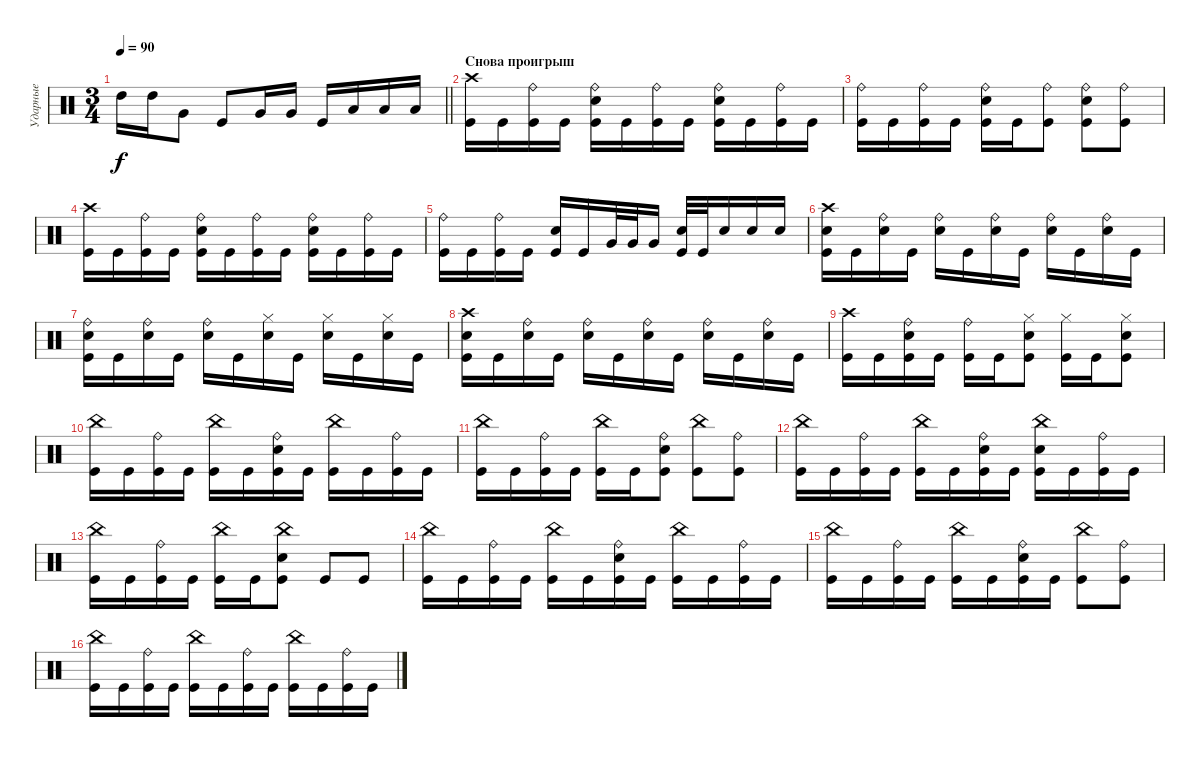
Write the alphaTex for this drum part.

\track ("Ударные" "Ударные") {instrument percussion}
\staff {score}
\articulation defaults
\ts (3 4)
\tempo 90
\clef neutral
\barLineRight lightlight
\ks c "High Tom (hit)".16{dy f} "High Tom (hit)".16 "Very Low Tom (hit)".8 "Kick (hit)".8 "Very Low Tom (hit)".16 "Very Low Tom (hit)".16 "Kick (hit)".16 "Low Tom (hit)".16 "Low Tom (hit)".16 "Low Tom (hit)".16
|
\section ("" "Снова проигрыш")
("Crash high (hit)" "Kick (hit)").16 "Kick (hit)".16 ("Ride (bell)" "Kick (hit)").16 "Kick (hit)".16 ("Ride (bell)" "Electric Snare (hit)" "Kick (hit)").16 "Kick (hit)".16 ("Ride (bell)" "Kick (hit)").16 "Kick (hit)".16 ("Ride (bell)" "Electric Snare (hit)" "Kick (hit)").16 "Kick (hit)".16 ("Ride (bell)" "Kick (hit)").16 "Kick (hit)".16 |
("Ride (bell)" "Kick (hit)").16 "Kick (hit)".16 ("Ride (bell)" "Kick (hit)").16 "Kick (hit)".16 ("Ride (bell)" "Electric Snare (hit)" "Kick (hit)").16 "Kick (hit)".16 ("Ride (bell)" "Kick (hit)").8 ("Ride (bell)" "Electric Snare (hit)" "Kick (hit)").8 ("Ride (bell)" "Kick (hit)").8 |
("Crash high (hit)" "Kick (hit)").16 "Kick (hit)".16 ("Ride (bell)" "Kick (hit)").16 "Kick (hit)".16 ("Ride (bell)" "Electric Snare (hit)" "Kick (hit)").16 "Kick (hit)".16 ("Ride (bell)" "Kick (hit)").16 "Kick (hit)".16 ("Ride (bell)" "Electric Snare (hit)" "Kick (hit)").16 "Kick (hit)".16 ("Ride (bell)" "Kick (hit)").16 "Kick (hit)".16 |
("Ride (bell)" "Kick (hit)").16 "Kick (hit)".16 ("Ride (bell)" "Kick (hit)").16 "Kick (hit)".16 ("Electric Snare (hit)" "Kick (hit)").16 "Kick (hit)".16 "Very Low Tom (hit)".32 "Very Low Tom (hit)".32 "Very Low Tom (hit)".16 ("Electric Snare (hit)" "Kick (hit)").32 "Kick (hit)".32 "Electric Snare (hit)".16 "Electric Snare (hit)".16 "Electric Snare (hit)".16 |
("Crash high (hit)" "Electric Snare (hit)" "Kick (hit)").16 "Kick (hit)".16 ("Ride (bell)" "Electric Snare (hit)").16 "Kick (hit)".16 ("Ride (bell)" "Electric Snare (hit)").16 "Kick (hit)".16 ("Ride (bell)" "Electric Snare (hit)").16 "Kick (hit)".16 ("Ride (bell)" "Electric Snare (hit)").16 "Kick (hit)".16 ("Ride (bell)" "Electric Snare (hit)").16 "Kick (hit)".16 |
("Ride (bell)" "Electric Snare (hit)" "Kick (hit)").16 "Kick (hit)".16 ("Ride (bell)" "Electric Snare (hit)").16 "Kick (hit)".16 ("Ride (bell)" "Electric Snare (hit)").16 "Kick (hit)".16 ("Hi-Hat (closed)" "Electric Snare (hit)").16 "Kick (hit)".16 ("Hi-Hat (closed)" "Electric Snare (hit)").16 "Kick (hit)".16 ("Hi-Hat (closed)" "Electric Snare (hit)").16 "Kick (hit)".16 |
("Crash high (hit)" "Electric Snare (hit)" "Kick (hit)").16 "Kick (hit)".16 ("Ride (bell)" "Electric Snare (hit)").16 "Kick (hit)".16 ("Ride (bell)" "Electric Snare (hit)").16 "Kick (hit)".16 ("Ride (bell)" "Electric Snare (hit)").16 "Kick (hit)".16 ("Ride (bell)" "Electric Snare (hit)").16 "Kick (hit)".16 ("Ride (bell)" "Electric Snare (hit)").16 "Kick (hit)".16 |
("Crash high (hit)" "Kick (hit)").16 "Kick (hit)".16 ("Ride (bell)" "Electric Snare (hit)" "Kick (hit)").16 "Kick (hit)".16 ("Ride (bell)" "Kick (hit)").16 "Kick (hit)".16 ("Hi-Hat (closed)" "Electric Snare (hit)" "Kick (hit)").8 ("Hi-Hat (closed)" "Kick (hit)").16 "Kick (hit)".16 ("Hi-Hat (closed)" "Electric Snare (hit)" "Kick (hit)").8 |
("China (hit)" "Kick (hit)").16 "Kick (hit)".16 ("Ride (bell)" "Kick (hit)").16 "Kick (hit)".16 ("China (hit)" "Kick (hit)").16 "Kick (hit)".16 ("Ride (bell)" "Electric Snare (hit)" "Kick (hit)").16 "Kick (hit)".16 ("China (hit)" "Kick (hit)").16 "Kick (hit)".16 ("Ride (bell)" "Kick (hit)").16 "Kick (hit)".16 |
("China (hit)" "Kick (hit)").16 "Kick (hit)".16 ("Ride (bell)" "Kick (hit)").16 "Kick (hit)".16 ("China (hit)" "Kick (hit)").16 "Kick (hit)".16 ("Ride (bell)" "Electric Snare (hit)" "Kick (hit)").8 ("China (hit)" "Kick (hit)").8 ("Ride (bell)" "Kick (hit)").8 |
("China (hit)" "Kick (hit)").16 "Kick (hit)".16 ("Ride (bell)" "Kick (hit)").16 "Kick (hit)".16 ("China (hit)" "Kick (hit)").16 "Kick (hit)".16 ("Ride (bell)" "Electric Snare (hit)" "Kick (hit)").16 "Kick (hit)".16 ("China (hit)" "Electric Snare (hit)" "Kick (hit)").16 "Kick (hit)".16 ("Ride (bell)" "Kick (hit)").16 "Kick (hit)".16 |
("China (hit)" "Kick (hit)").16 "Kick (hit)".16 ("Ride (bell)" "Kick (hit)").16 "Kick (hit)".16 ("China (hit)" "Kick (hit)").16 "Kick (hit)".16 ("China (hit)" "Electric Snare (hit)" "Kick (hit)").8 "Kick (hit)".8 "Kick (hit)".8 |
("China (hit)" "Kick (hit)").16 "Kick (hit)".16 ("Ride (bell)" "Kick (hit)").16 "Kick (hit)".16 ("China (hit)" "Kick (hit)").16 "Kick (hit)".16 ("Ride (bell)" "Electric Snare (hit)" "Kick (hit)").16 "Kick (hit)".16 ("China (hit)" "Kick (hit)").16 "Kick (hit)".16 ("Ride (bell)" "Kick (hit)").16 "Kick (hit)".16 |
("China (hit)" "Kick (hit)").16 "Kick (hit)".16 ("Ride (bell)" "Kick (hit)").16 "Kick (hit)".16 ("China (hit)" "Kick (hit)").16 "Kick (hit)".16 ("Ride (bell)" "Electric Snare (hit)" "Kick (hit)").16 "Kick (hit)".16 ("China (hit)" "Kick (hit)").8 ("Ride (bell)" "Kick (hit)").8 |
("China (hit)" "Kick (hit)").16 "Kick (hit)".16 ("Ride (bell)" "Kick (hit)").16 "Kick (hit)".16 ("China (hit)" "Kick (hit)").16 "Kick (hit)".16 ("Ride (bell)" "Kick (hit)").16 "Kick (hit)".16 ("China (hit)" "Kick (hit)").16 "Kick (hit)".16 ("Ride (bell)" "Kick (hit)").16 "Kick (hit)".16
